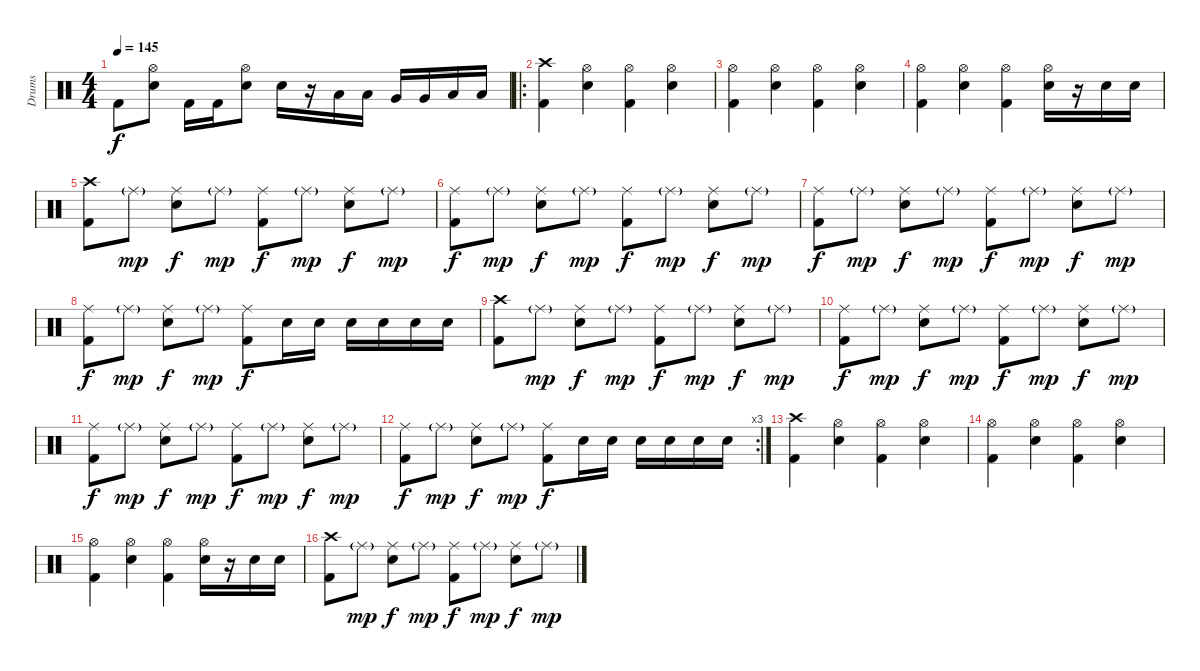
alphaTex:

\track ("Drums" "Drums") {instrument percussion}
\staff {score}
\articulation defaults
\ts (4 4)
\tempo 145
\clef neutral
\ks c "Kick (hit) 2".8{dy f}
("Snare (hit) 2" "Hi-Hat (open)").8 "Kick (hit) 2".16 "Kick (hit) 2".16 ("Snare (hit) 2" "Hi-Hat (open)").8 "Snare (hit) 2".16 r.16 "Low Tom (hit)".16 "Low Tom (hit)".16 "Very Low Tom (hit)".16 "Very Low Tom (hit)".16 "Low Floor Tom (hit)".16 "Low Floor Tom (hit)".16 |
\ro
("Kick (hit) 2" "Crash high (hit)").4 ("Snare (hit) 2" "Hi-Hat (open)").4 ("Kick (hit) 2" "Hi-Hat (open)").4 ("Snare (hit) 2" "Hi-Hat (open)").4 |
("Kick (hit) 2" "Hi-Hat (open)").4 ("Snare (hit) 2" "Hi-Hat (open)").4 ("Kick (hit) 2" "Hi-Hat (open)").4 ("Snare (hit) 2" "Hi-Hat (open)").4 |
("Kick (hit) 2" "Hi-Hat (open)").4 ("Snare (hit) 2" "Hi-Hat (open)").4 ("Kick (hit) 2" "Hi-Hat (open)").4 ("Snare (hit) 2" "Hi-Hat (open)").16 r.16 "Snare (hit) 2".16 "Snare (hit) 2".16 |
("Crash high (hit)" "Kick (hit) 2").8 "Ride (middle)"{g}.8{dy mp} ("Ride (middle)" "Snare (hit) 2").8{dy f} "Ride (middle)"{g}.8{dy mp} ("Ride (middle)" "Kick (hit) 2").8{dy f} "Ride (middle)"{g}.8{dy mp} ("Ride (middle)" "Snare (hit) 2").8{dy f} "Ride (middle)"{g}.8{dy mp} |
("Ride (middle)" "Kick (hit) 2").8{dy f} "Ride (middle)"{g}.8{dy mp} ("Ride (middle)" "Snare (hit) 2").8{dy f} "Ride (middle)"{g}.8{dy mp} ("Ride (middle)" "Kick (hit) 2").8{dy f} "Ride (middle)"{g}.8{dy mp} ("Ride (middle)" "Snare (hit) 2").8{dy f} "Ride (middle)"{g}.8{dy mp} |
("Ride (middle)" "Kick (hit) 2").8{dy f} "Ride (middle)"{g}.8{dy mp} ("Ride (middle)" "Snare (hit) 2").8{dy f} "Ride (middle)"{g}.8{dy mp} ("Ride (middle)" "Kick (hit) 2").8{dy f} "Ride (middle)"{g}.8{dy mp} ("Ride (middle)" "Snare (hit) 2").8{dy f} "Ride (middle)"{g}.8{dy mp} |
("Ride (middle)" "Kick (hit) 2").8{dy f} "Ride (middle)"{g}.8{dy mp} ("Ride (middle)" "Snare (hit) 2").8{dy f} "Ride (middle)"{g}.8{dy mp} ("Ride (middle)" "Kick (hit) 2").8{dy f} "Snare (hit) 2".16 "Snare (hit) 2".16 "Snare (hit) 2".16 "Snare (hit) 2".16 "Snare (hit) 2".16 "Snare (hit) 2".16 |
("Crash high (hit)" "Kick (hit) 2").8 "Ride (middle)"{g}.8{dy mp} ("Ride (middle)" "Snare (hit) 2").8{dy f} "Ride (middle)"{g}.8{dy mp} ("Ride (middle)" "Kick (hit) 2").8{dy f} "Ride (middle)"{g}.8{dy mp} ("Ride (middle)" "Snare (hit) 2").8{dy f} "Ride (middle)"{g}.8{dy mp} |
("Ride (middle)" "Kick (hit) 2").8{dy f} "Ride (middle)"{g}.8{dy mp} ("Ride (middle)" "Snare (hit) 2").8{dy f} "Ride (middle)"{g}.8{dy mp} ("Ride (middle)" "Kick (hit) 2").8{dy f} "Ride (middle)"{g}.8{dy mp} ("Ride (middle)" "Snare (hit) 2").8{dy f} "Ride (middle)"{g}.8{dy mp} |
("Ride (middle)" "Kick (hit) 2").8{dy f} "Ride (middle)"{g}.8{dy mp} ("Ride (middle)" "Snare (hit) 2").8{dy f} "Ride (middle)"{g}.8{dy mp} ("Ride (middle)" "Kick (hit) 2").8{dy f} "Ride (middle)"{g}.8{dy mp} ("Ride (middle)" "Snare (hit) 2").8{dy f} "Ride (middle)"{g}.8{dy mp} |
\rc 3
("Ride (middle)" "Kick (hit) 2").8{dy f} "Ride (middle)"{g}.8{dy mp} ("Ride (middle)" "Snare (hit) 2").8{dy f} "Ride (middle)"{g}.8{dy mp} ("Ride (middle)" "Kick (hit) 2").8{dy f} "Snare (hit) 2".16 "Snare (hit) 2".16 "Snare (hit) 2".16 "Snare (hit) 2".16 "Snare (hit) 2".16 "Snare (hit) 2".16 |
("Kick (hit) 2" "Crash high (hit)").4 ("Snare (hit) 2" "Hi-Hat (open)").4 ("Kick (hit) 2" "Hi-Hat (open)").4 ("Snare (hit) 2" "Hi-Hat (open)").4 |
("Kick (hit) 2" "Hi-Hat (open)").4 ("Snare (hit) 2" "Hi-Hat (open)").4 ("Kick (hit) 2" "Hi-Hat (open)").4 ("Snare (hit) 2" "Hi-Hat (open)").4 |
("Kick (hit) 2" "Hi-Hat (open)").4 ("Snare (hit) 2" "Hi-Hat (open)").4 ("Kick (hit) 2" "Hi-Hat (open)").4 ("Snare (hit) 2" "Hi-Hat (open)").16 r.16 "Snare (hit) 2".16 "Snare (hit) 2".16 |
("Crash high (hit)" "Kick (hit) 2").8 "Ride (middle)"{g}.8{dy mp} ("Ride (middle)" "Snare (hit) 2").8{dy f} "Ride (middle)"{g}.8{dy mp} ("Ride (middle)" "Kick (hit) 2").8{dy f} "Ride (middle)"{g}.8{dy mp} ("Ride (middle)" "Snare (hit) 2").8{dy f} "Ride (middle)"{g}.8{dy mp}
